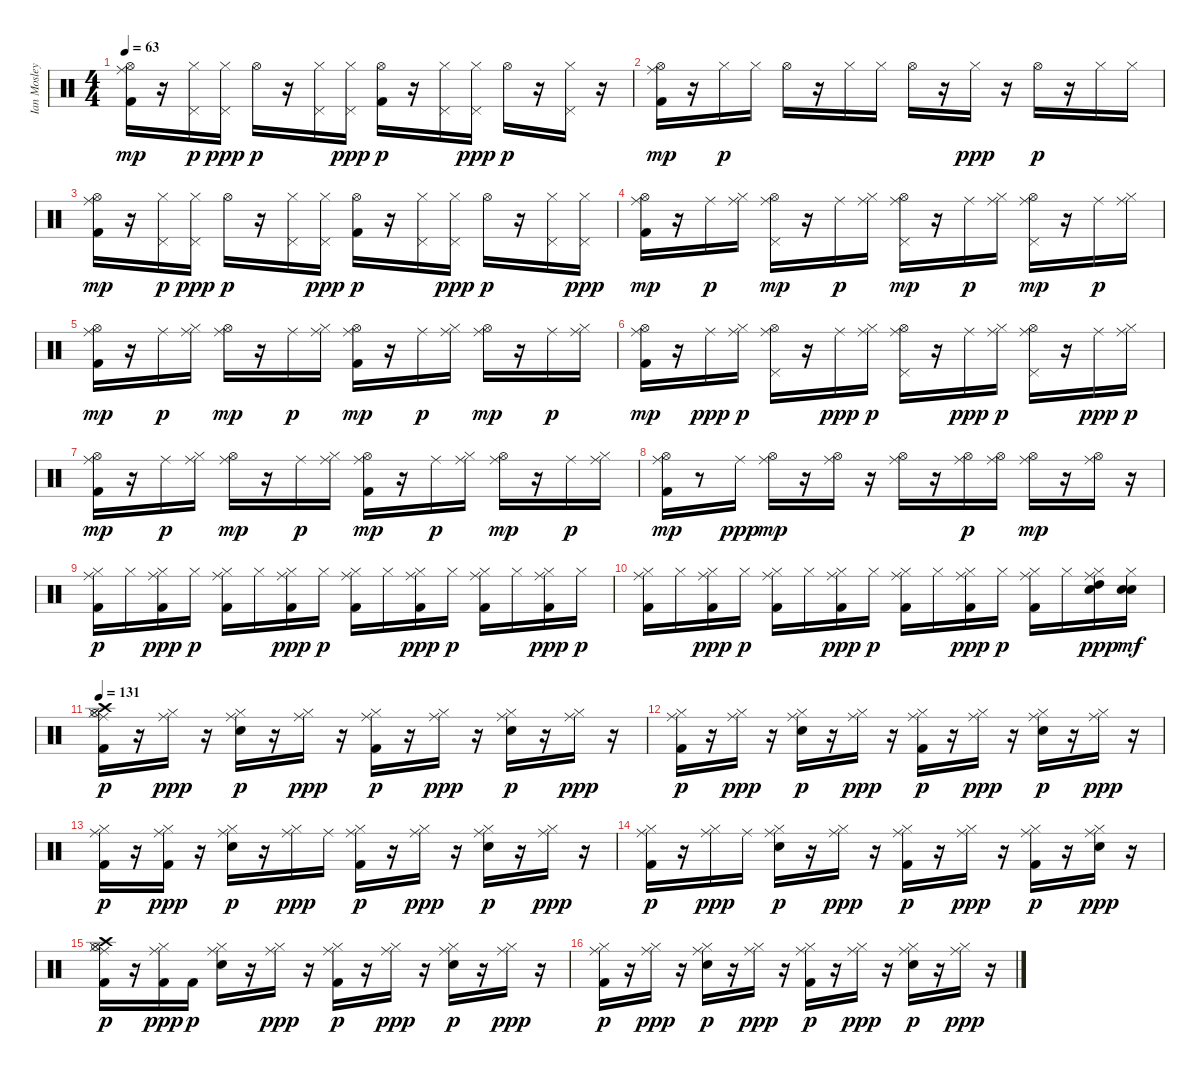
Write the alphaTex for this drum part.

\track ("Ian Mosley" "Ian Mosley") {instrument percussion}
\staff {score}
\articulation defaults
\ts (4 4)
\tempo 63
\clef neutral
\ks c
("Kick (hit) 2" "Hi-Hat (open)" "Ride (middle)").16{dy mp} r.16 ("Hi-Hat (closed)" "Pedal Hi-Hat (hit)").16{dy p} ("Hi-Hat (closed)" "Pedal Hi-Hat (hit)").16{dy ppp} "Hi-Hat (open)".16{dy p} r.16 ("Hi-Hat (closed)" "Pedal Hi-Hat (hit)").16 ("Hi-Hat (closed)" "Pedal Hi-Hat (hit)").16{dy ppp} ("Kick (hit) 2" "Hi-Hat (open)").16{dy p} r.16 ("Hi-Hat (closed)" "Pedal Hi-Hat (hit)").16 ("Hi-Hat (closed)" "Pedal Hi-Hat (hit)").16{dy ppp} "Hi-Hat (open)".16{dy p} r.16 ("Hi-Hat (closed)" "Pedal Hi-Hat (hit)").16 r.16 |
("Kick (hit) 2" "Hi-Hat (open)" "Ride (middle)").16{dy mp} r.16 "Hi-Hat (closed)".16{dy p} "Hi-Hat (closed)".16 "Hi-Hat (open)".16 r.16 "Hi-Hat (closed)".16 "Hi-Hat (closed)".16 "Hi-Hat (open)".16 r.16 "Hi-Hat (closed)".16{dy ppp} r.16 "Hi-Hat (open)".16{dy p} r.16 "Hi-Hat (closed)".16 "Hi-Hat (closed)".16 |
("Kick (hit) 2" "Hi-Hat (open)" "Ride (middle)").16{dy mp} r.16 ("Hi-Hat (closed)" "Pedal Hi-Hat (hit)").16{dy p} ("Hi-Hat (closed)" "Pedal Hi-Hat (hit)").16{dy ppp} "Hi-Hat (open)".16{dy p} r.16 ("Hi-Hat (closed)" "Pedal Hi-Hat (hit)").16 ("Hi-Hat (closed)" "Pedal Hi-Hat (hit)").16{dy ppp} ("Kick (hit) 2" "Hi-Hat (open)").16{dy p} r.16 ("Hi-Hat (closed)" "Pedal Hi-Hat (hit)").16 ("Hi-Hat (closed)" "Pedal Hi-Hat (hit)").16{dy ppp} "Hi-Hat (open)".16{dy p} r.16 ("Hi-Hat (closed)" "Pedal Hi-Hat (hit)").16 ("Hi-Hat (closed)" "Pedal Hi-Hat (hit)").16{dy ppp} |
("Kick (hit) 2" "Hi-Hat (open)" "Ride (middle)").16{dy mp} r.16 "Ride (middle)".16{dy p} ("Hi-Hat (closed)" "Ride (middle)").16 ("Pedal Hi-Hat (hit)" "Hi-Hat (open)" "Ride (middle)").16{dy mp} r.16 "Ride (middle)".16{dy p} ("Hi-Hat (closed)" "Ride (middle)").16 ("Pedal Hi-Hat (hit)" "Hi-Hat (open)" "Ride (middle)").16{dy mp} r.16 "Ride (middle)".16{dy p} ("Hi-Hat (closed)" "Ride (middle)").16 ("Pedal Hi-Hat (hit)" "Hi-Hat (open)" "Ride (middle)").16{dy mp} r.16 "Ride (middle)".16{dy p} ("Hi-Hat (closed)" "Ride (middle)").16 |
("Kick (hit) 2" "Hi-Hat (open)" "Ride (middle)").16{dy mp} r.16 "Ride (middle)".16{dy p} ("Hi-Hat (closed)" "Ride (middle)").16 ("Hi-Hat (open)" "Ride (middle)").16{dy mp} r.16 "Ride (middle)".16{dy p} ("Hi-Hat (closed)" "Ride (middle)").16 ("Kick (hit) 2" "Hi-Hat (open)" "Ride (middle)").16{dy mp} r.16 "Ride (middle)".16{dy p} ("Hi-Hat (closed)" "Ride (middle)").16 ("Hi-Hat (open)" "Ride (middle)").16{dy mp} r.16 "Ride (middle)".16{dy p} ("Hi-Hat (closed)" "Ride (middle)").16 |
("Kick (hit) 2" "Hi-Hat (open)" "Ride (middle)").16{dy mp} r.16 "Ride (middle)".16{dy ppp} ("Hi-Hat (closed)" "Ride (middle)").16{dy p} ("Pedal Hi-Hat (hit)" "Hi-Hat (open)" "Ride (middle)").16 r.16 "Ride (middle)".16{dy ppp} ("Hi-Hat (closed)" "Ride (middle)").16{dy p} ("Pedal Hi-Hat (hit)" "Hi-Hat (open)" "Ride (middle)").16 r.16 "Ride (middle)".16{dy ppp} ("Hi-Hat (closed)" "Ride (middle)").16{dy p} ("Pedal Hi-Hat (hit)" "Hi-Hat (open)" "Ride (middle)").16 r.16 "Ride (middle)".16{dy ppp} ("Hi-Hat (closed)" "Ride (middle)").16{dy p} |
("Kick (hit) 2" "Hi-Hat (open)" "Ride (middle)").16{dy mp} r.16 "Ride (middle)".16{dy p} ("Hi-Hat (closed)" "Ride (middle)").16 ("Hi-Hat (open)" "Ride (middle)").16{dy mp} r.16 "Ride (middle)".16{dy p} ("Hi-Hat (closed)" "Ride (middle)").16 ("Kick (hit) 2" "Hi-Hat (open)" "Ride (middle)").16{dy mp} r.16 "Ride (middle)".16{dy p} ("Hi-Hat (closed)" "Ride (middle)").16 ("Hi-Hat (open)" "Ride (middle)").16{dy mp} r.16 "Ride (middle)".16{dy p} ("Hi-Hat (closed)" "Ride (middle)").16 |
("Kick (hit) 2" "Hi-Hat (open)" "Ride (middle)").16{dy mp} r.8 "Ride (middle)".16{dy ppp} ("Hi-Hat (open)" "Ride (middle)").16{dy mp} r.16 ("Hi-Hat (open)" "Ride (middle)").16 r.16 ("Hi-Hat (open)" "Ride (middle)").16 r.16 ("Hi-Hat (open)" "Ride (middle)").16{dy p} ("Hi-Hat (open)" "Ride (middle)").16 ("Hi-Hat (open)" "Ride (middle)").16{dy mp} r.16 ("Hi-Hat (open)" "Ride (middle)").16 r.16 |
("Kick (hit) 2" "Hi-Hat (closed)" "Ride (middle)").16{dy p volume 12} "Hi-Hat (closed)".16 ("Kick (hit) 2" "Hi-Hat (closed)" "Ride (middle)").16{dy ppp volume 12} "Hi-Hat (closed)".16{dy p volume 12} ("Kick (hit) 2" "Hi-Hat (closed)" "Ride (middle)").16{volume 12} "Hi-Hat (closed)".16{volume 12} ("Kick (hit) 2" "Hi-Hat (closed)" "Ride (middle)").16{dy ppp} "Hi-Hat (closed)".16{dy p volume 13} ("Kick (hit) 2" "Hi-Hat (closed)" "Ride (middle)").16{volume 13} "Hi-Hat (closed)".16{volume 13} ("Kick (hit) 2" "Hi-Hat (closed)" "Ride (middle)").16{dy ppp volume 13} "Hi-Hat (closed)".16{dy p} ("Kick (hit) 2" "Hi-Hat (closed)" "Ride (middle)").16{volume 13} "Hi-Hat (closed)".16{volume 13} ("Kick (hit) 2" "Hi-Hat (closed)" "Ride (middle)").16{dy ppp volume 13} "Hi-Hat (closed)".16{dy p volume 14} |
("Kick (hit) 2" "Hi-Hat (closed)" "Ride (middle)").16{volume 14} "Hi-Hat (closed)".16 ("Kick (hit) 2" "Hi-Hat (closed)" "Ride (middle)").16{dy ppp} "Hi-Hat (closed)".16{dy p} ("Kick (hit) 2" "Hi-Hat (closed)" "Ride (middle)").16 "Hi-Hat (closed)".16 ("Kick (hit) 2" "Hi-Hat (closed)" "Ride (middle)").16{dy ppp} "Hi-Hat (closed)".16{dy p} ("Kick (hit) 2" "Hi-Hat (closed)" "Ride (middle)").16 "Hi-Hat (closed)".16 ("Kick (hit) 2" "Hi-Hat (closed)" "Ride (middle)").16{dy ppp} "Hi-Hat (closed)".16{dy p} ("Kick (hit) 2" "Hi-Hat (closed)" "Ride (middle)").16 "Hi-Hat (closed)".16 ("Hi-Hat (closed)" "Snare (hit) 2" "High Tom (hit)" "Ride (middle)").16{dy ppp} ("Snare (hit) 2" "Hi-Hat (closed)" "Snare (hit) 2").16{dy mf} |
\tempo 131
("Kick (hit) 2" "Hi-Hat (closed)" "Crash high (hit)" "Hi-Hat (open)" "Ride (middle)").16{dy p} r.16 ("Hi-Hat (closed)" "Ride (middle)").16{dy ppp} r.16 ("Snare (hit) 2" "Hi-Hat (closed)" "Ride (middle)").16{dy p} r.16 ("Hi-Hat (closed)" "Ride (middle)").16{dy ppp} r.16 ("Kick (hit) 2" "Hi-Hat (closed)" "Ride (middle)").16{dy p} r.16 ("Hi-Hat (closed)" "Ride (middle)").16{dy ppp} r.16 ("Snare (hit) 2" "Hi-Hat (closed)" "Ride (middle)").16{dy p} r.16 ("Hi-Hat (closed)" "Ride (middle)").16{dy ppp} r.16 |
("Kick (hit) 2" "Hi-Hat (closed)" "Ride (middle)").16{dy p} r.16 ("Hi-Hat (closed)" "Ride (middle)").16{dy ppp} r.16 ("Snare (hit) 2" "Hi-Hat (closed)" "Ride (middle)").16{dy p} r.16 ("Hi-Hat (closed)" "Ride (middle)").16{dy ppp} r.16 ("Kick (hit) 2" "Hi-Hat (closed)" "Ride (middle)").16{dy p} r.16 ("Hi-Hat (closed)" "Ride (middle)").16{dy ppp} r.16 ("Snare (hit) 2" "Hi-Hat (closed)" "Ride (middle)").16{dy p} r.16 ("Hi-Hat (closed)" "Ride (middle)").16{dy ppp} r.16 |
("Kick (hit) 2" "Hi-Hat (closed)" "Ride (middle)").16{dy p} r.16 ("Hi-Hat (closed)" "Kick (hit) 2" "Ride (middle)").16{dy ppp} r.16 ("Snare (hit) 2" "Hi-Hat (closed)" "Ride (middle)").16{dy p} r.16 ("Hi-Hat (closed)" "Ride (middle)").16{dy ppp} "Ride (middle)".16 ("Kick (hit) 2" "Hi-Hat (closed)" "Ride (middle)").16{dy p} r.16 ("Hi-Hat (closed)" "Ride (middle)").16{dy ppp} r.16 ("Snare (hit) 2" "Hi-Hat (closed)" "Ride (middle)").16{dy p} r.16 ("Hi-Hat (closed)" "Ride (middle)").16{dy ppp} r.16 |
("Kick (hit) 2" "Hi-Hat (closed)" "Ride (middle)").16{dy p} r.16 ("Hi-Hat (closed)" "Ride (middle)").16{dy ppp} "Ride (middle)".16 ("Snare (hit) 2" "Hi-Hat (closed)" "Ride (middle)").16{dy p} r.16 ("Hi-Hat (closed)" "Ride (middle)").16{dy ppp} r.16 ("Kick (hit) 2" "Hi-Hat (closed)" "Ride (middle)").16{dy p} r.16 ("Hi-Hat (closed)" "Ride (middle)").16{dy ppp} r.16 ("Hi-Hat (closed)" "Kick (hit) 2" "Ride (middle)").16{dy p} r.16 ("Hi-Hat (closed)" "Snare (hit) 2" "Ride (middle)").16{dy ppp} r.16 |
("Kick (hit) 2" "Hi-Hat (closed)" "Crash high (hit)" "Hi-Hat (open)" "Ride (middle)").16{dy p} r.16 ("Hi-Hat (closed)" "Kick (hit) 2" "Ride (middle)").16{dy ppp} "Kick (hit) 2".16{dy p} ("Snare (hit) 2" "Hi-Hat (closed)" "Ride (middle)").16 r.16 ("Hi-Hat (closed)" "Ride (middle)").16{dy ppp} r.16 ("Kick (hit) 2" "Hi-Hat (closed)" "Ride (middle)").16{dy p} r.16 ("Hi-Hat (closed)" "Ride (middle)").16{dy ppp} r.16 ("Snare (hit) 2" "Hi-Hat (closed)" "Ride (middle)").16{dy p} r.16 ("Hi-Hat (closed)" "Ride (middle)").16{dy ppp} r.16 |
("Kick (hit) 2" "Hi-Hat (closed)" "Ride (middle)").16{dy p} r.16 ("Hi-Hat (closed)" "Ride (middle)").16{dy ppp} r.16 ("Snare (hit) 2" "Hi-Hat (closed)" "Ride (middle)").16{dy p} r.16 ("Hi-Hat (closed)" "Ride (middle)").16{dy ppp} r.16 ("Kick (hit) 2" "Hi-Hat (closed)" "Ride (middle)").16{dy p} r.16 ("Hi-Hat (closed)" "Ride (middle)").16{dy ppp} r.16 ("Hi-Hat (closed)" "Snare (hit) 2" "Ride (middle)").16{dy p} r.16 ("Hi-Hat (closed)" "Ride (middle)").16{dy ppp} r.16
